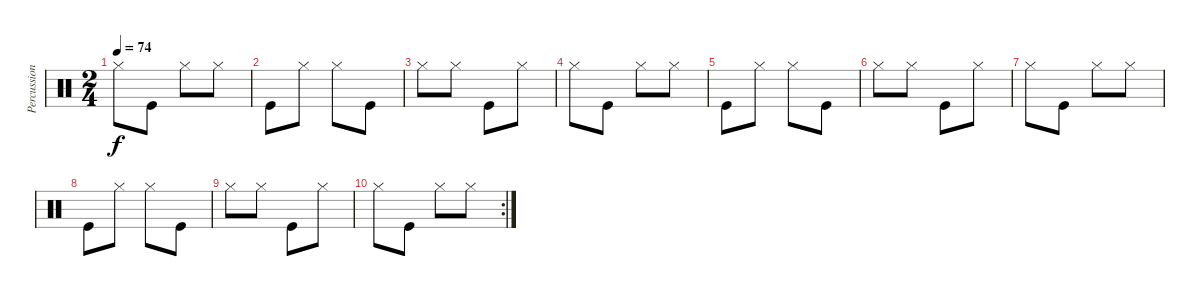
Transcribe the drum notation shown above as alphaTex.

\track ("Percussion" "Percussion") {instrument percussion}
\staff {score}
\articulation defaults
\ts (2 4)
\tempo 74
\clef neutral
\ks c "Hi-Hat (closed)".8{dy f} "Kick (hit)".8 "Hi-Hat (closed)".8 "Hi-Hat (closed)".8
|
"Kick (hit)".8 "Hi-Hat (closed)".8 "Hi-Hat (closed)".8 "Kick (hit)".8 |
"Hi-Hat (closed)".8 "Hi-Hat (closed)".8 "Kick (hit)".8 "Hi-Hat (closed)".8 |
"Hi-Hat (closed)".8 "Kick (hit)".8 "Hi-Hat (closed)".8 "Hi-Hat (closed)".8 |
"Kick (hit)".8 "Hi-Hat (closed)".8 "Hi-Hat (closed)".8 "Kick (hit)".8 |
"Hi-Hat (closed)".8 "Hi-Hat (closed)".8 "Kick (hit)".8 "Hi-Hat (closed)".8 |
"Hi-Hat (closed)".8 "Kick (hit)".8 "Hi-Hat (closed)".8 "Hi-Hat (closed)".8 |
"Kick (hit)".8 "Hi-Hat (closed)".8 "Hi-Hat (closed)".8 "Kick (hit)".8 |
"Hi-Hat (closed)".8 "Hi-Hat (closed)".8 "Kick (hit)".8 "Hi-Hat (closed)".8 |
\rc 2 "Hi-Hat (closed)".8 "Kick (hit)".8 "Hi-Hat (closed)".8 "Hi-Hat (closed)".8
